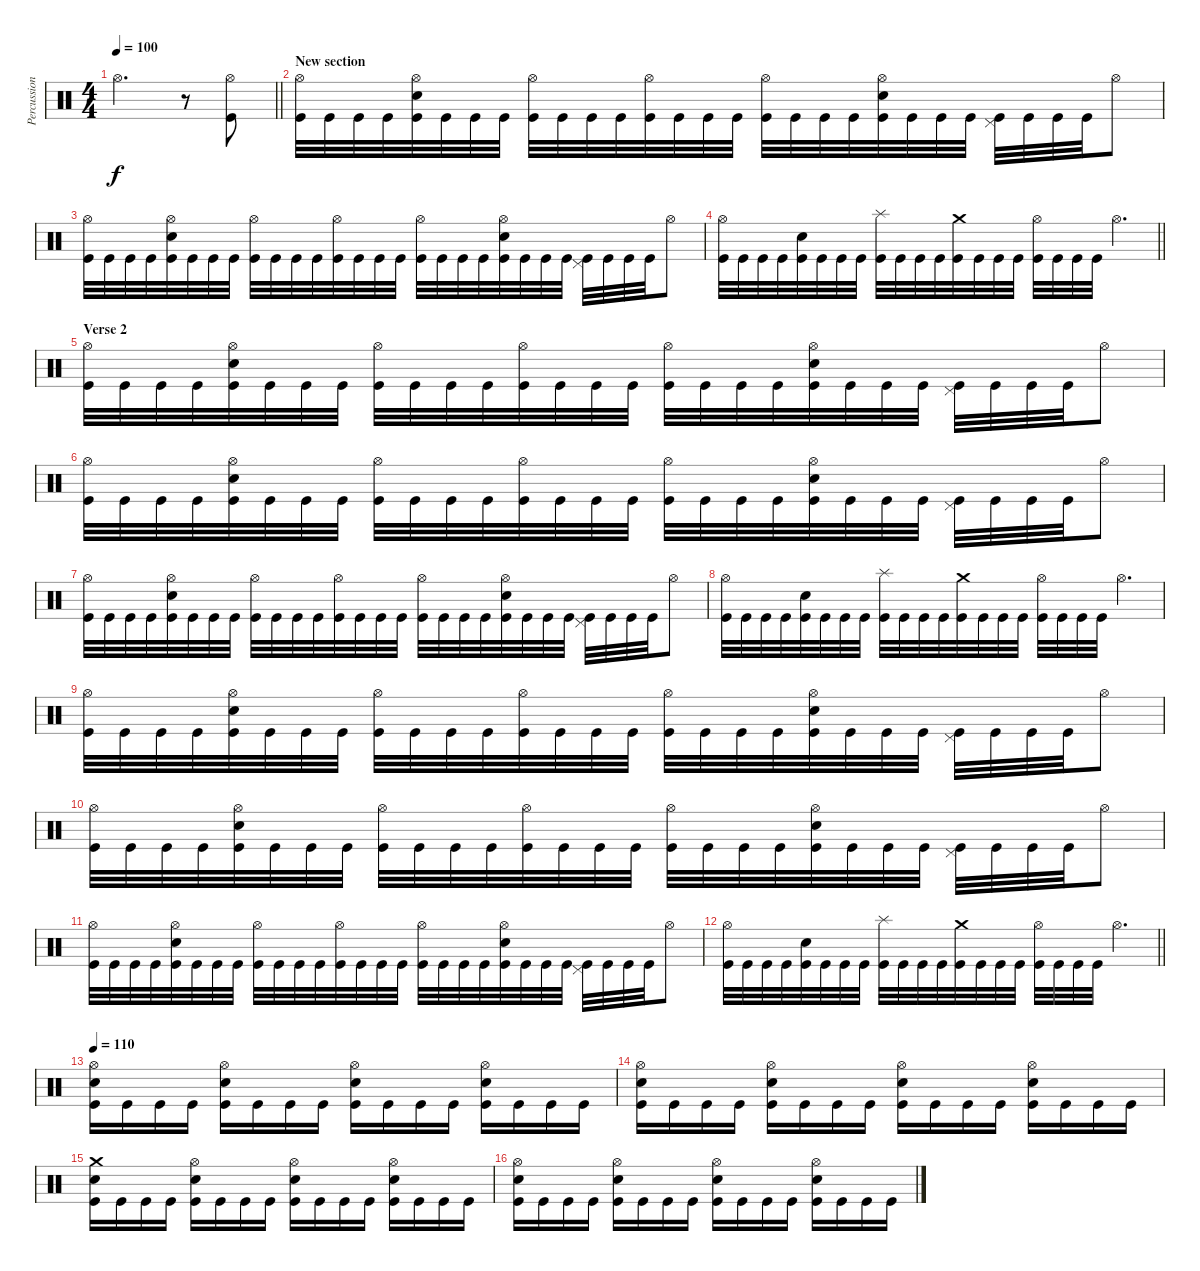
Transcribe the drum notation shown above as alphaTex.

\track ("Percussions" "Percussion") {instrument percussion}
\staff {score}
\articulation defaults
\ts (4 4)
\section ("" "")
\tempo 100
\clef neutral
\barLineRight lightlight
\ks c "Hi-Hat (open)".2{d dy f}
r.8 ("Hi-Hat (open)" "Kick (hit)").8 |
\section ("" "New section")
("Hi-Hat (open)" "Kick (hit)").32 "Kick (hit)".32 "Kick (hit)".32 "Kick (hit)".32 ("Hi-Hat (open)" "Electric Snare (hit)" "Kick (hit)").32 "Kick (hit)".32 "Kick (hit)".32 "Kick (hit)".32 ("Hi-Hat (open)" "Kick (hit)").32 "Kick (hit)".32 "Kick (hit)".32 "Kick (hit)".32 ("Hi-Hat (open)" "Kick (hit)").32 "Kick (hit)".32 "Kick (hit)".32 "Kick (hit)".32 ("Hi-Hat (open)" "Kick (hit)").32 "Kick (hit)".32 "Kick (hit)".32 "Kick (hit)".32 ("Hi-Hat (open)" "Electric Snare (hit)" "Kick (hit)").32 "Kick (hit)".32 "Kick (hit)".32 "Kick (hit)".32 ("Pedal Hi-Hat (hit)" "Kick (hit)").32 "Kick (hit)".32 "Kick (hit)".32 "Kick (hit)".32 "Hi-Hat (open)".8 |
("Hi-Hat (open)" "Kick (hit)").32 "Kick (hit)".32 "Kick (hit)".32 "Kick (hit)".32 ("Hi-Hat (open)" "Electric Snare (hit)" "Kick (hit)").32 "Kick (hit)".32 "Kick (hit)".32 "Kick (hit)".32 ("Hi-Hat (open)" "Kick (hit)").32 "Kick (hit)".32 "Kick (hit)".32 "Kick (hit)".32 ("Hi-Hat (open)" "Kick (hit)").32 "Kick (hit)".32 "Kick (hit)".32 "Kick (hit)".32 ("Hi-Hat (open)" "Kick (hit)").32 "Kick (hit)".32 "Kick (hit)".32 "Kick (hit)".32 ("Hi-Hat (open)" "Electric Snare (hit)" "Kick (hit)").32 "Kick (hit)".32 "Kick (hit)".32 "Kick (hit)".32 ("Pedal Hi-Hat (hit)" "Kick (hit)").32 "Kick (hit)".32 "Kick (hit)".32 "Kick (hit)".32 "Hi-Hat (open)".8 |
\barLineRight lightlight
("Hi-Hat (open)" "Kick (hit)").32 "Kick (hit)".32 "Kick (hit)".32 "Kick (hit)".32 ("Electric Snare (hit)" "Kick (hit)").32 "Kick (hit)".32 "Kick (hit)".32 "Kick (hit)".32 ("Splash (hit)" "Kick (hit)").32 "Kick (hit)".32 "Kick (hit)".32 "Kick (hit)".32 ("Crash medium (hit)" "Kick (hit)").32 "Kick (hit)".32 "Kick (hit)".32 "Kick (hit)".32 ("Hi-Hat (open)" "Kick (hit)").32 "Kick (hit)".32 "Kick (hit)".32 "Kick (hit)".32 "Hi-Hat (open)".4{d} |
\section ("" "Verse 2")
("Hi-Hat (open)" "Kick (hit)").32 "Kick (hit)".32 "Kick (hit)".32 "Kick (hit)".32 ("Hi-Hat (open)" "Electric Snare (hit)" "Kick (hit)").32 "Kick (hit)".32 "Kick (hit)".32 "Kick (hit)".32 ("Hi-Hat (open)" "Kick (hit)").32 "Kick (hit)".32 "Kick (hit)".32 "Kick (hit)".32 ("Hi-Hat (open)" "Kick (hit)").32 "Kick (hit)".32 "Kick (hit)".32 "Kick (hit)".32 ("Hi-Hat (open)" "Kick (hit)").32 "Kick (hit)".32 "Kick (hit)".32 "Kick (hit)".32 ("Hi-Hat (open)" "Electric Snare (hit)" "Kick (hit)").32 "Kick (hit)".32 "Kick (hit)".32 "Kick (hit)".32 ("Pedal Hi-Hat (hit)" "Kick (hit)").32 "Kick (hit)".32 "Kick (hit)".32 "Kick (hit)".32 "Hi-Hat (open)".8 |
("Hi-Hat (open)" "Kick (hit)").32 "Kick (hit)".32 "Kick (hit)".32 "Kick (hit)".32 ("Hi-Hat (open)" "Electric Snare (hit)" "Kick (hit)").32 "Kick (hit)".32 "Kick (hit)".32 "Kick (hit)".32 ("Hi-Hat (open)" "Kick (hit)").32 "Kick (hit)".32 "Kick (hit)".32 "Kick (hit)".32 ("Hi-Hat (open)" "Kick (hit)").32 "Kick (hit)".32 "Kick (hit)".32 "Kick (hit)".32 ("Hi-Hat (open)" "Kick (hit)").32 "Kick (hit)".32 "Kick (hit)".32 "Kick (hit)".32 ("Hi-Hat (open)" "Electric Snare (hit)" "Kick (hit)").32 "Kick (hit)".32 "Kick (hit)".32 "Kick (hit)".32 ("Pedal Hi-Hat (hit)" "Kick (hit)").32 "Kick (hit)".32 "Kick (hit)".32 "Kick (hit)".32 "Hi-Hat (open)".8 |
("Hi-Hat (open)" "Kick (hit)").32 "Kick (hit)".32 "Kick (hit)".32 "Kick (hit)".32 ("Hi-Hat (open)" "Electric Snare (hit)" "Kick (hit)").32 "Kick (hit)".32 "Kick (hit)".32 "Kick (hit)".32 ("Hi-Hat (open)" "Kick (hit)").32 "Kick (hit)".32 "Kick (hit)".32 "Kick (hit)".32 ("Hi-Hat (open)" "Kick (hit)").32 "Kick (hit)".32 "Kick (hit)".32 "Kick (hit)".32 ("Hi-Hat (open)" "Kick (hit)").32 "Kick (hit)".32 "Kick (hit)".32 "Kick (hit)".32 ("Hi-Hat (open)" "Electric Snare (hit)" "Kick (hit)").32 "Kick (hit)".32 "Kick (hit)".32 "Kick (hit)".32 ("Pedal Hi-Hat (hit)" "Kick (hit)").32 "Kick (hit)".32 "Kick (hit)".32 "Kick (hit)".32 "Hi-Hat (open)".8 |
("Hi-Hat (open)" "Kick (hit)").32 "Kick (hit)".32 "Kick (hit)".32 "Kick (hit)".32 ("Electric Snare (hit)" "Kick (hit)").32 "Kick (hit)".32 "Kick (hit)".32 "Kick (hit)".32 ("Splash (hit)" "Kick (hit)").32 "Kick (hit)".32 "Kick (hit)".32 "Kick (hit)".32 ("Crash medium (hit)" "Kick (hit)").32 "Kick (hit)".32 "Kick (hit)".32 "Kick (hit)".32 ("Hi-Hat (open)" "Kick (hit)").32 "Kick (hit)".32 "Kick (hit)".32 "Kick (hit)".32 "Hi-Hat (open)".4{d} |
("Hi-Hat (open)" "Kick (hit)").32 "Kick (hit)".32 "Kick (hit)".32 "Kick (hit)".32 ("Hi-Hat (open)" "Electric Snare (hit)" "Kick (hit)").32 "Kick (hit)".32 "Kick (hit)".32 "Kick (hit)".32 ("Hi-Hat (open)" "Kick (hit)").32 "Kick (hit)".32 "Kick (hit)".32 "Kick (hit)".32 ("Hi-Hat (open)" "Kick (hit)").32 "Kick (hit)".32 "Kick (hit)".32 "Kick (hit)".32 ("Hi-Hat (open)" "Kick (hit)").32 "Kick (hit)".32 "Kick (hit)".32 "Kick (hit)".32 ("Hi-Hat (open)" "Electric Snare (hit)" "Kick (hit)").32 "Kick (hit)".32 "Kick (hit)".32 "Kick (hit)".32 ("Pedal Hi-Hat (hit)" "Kick (hit)").32 "Kick (hit)".32 "Kick (hit)".32 "Kick (hit)".32 "Hi-Hat (open)".8 |
("Hi-Hat (open)" "Kick (hit)").32 "Kick (hit)".32 "Kick (hit)".32 "Kick (hit)".32 ("Hi-Hat (open)" "Electric Snare (hit)" "Kick (hit)").32 "Kick (hit)".32 "Kick (hit)".32 "Kick (hit)".32 ("Hi-Hat (open)" "Kick (hit)").32 "Kick (hit)".32 "Kick (hit)".32 "Kick (hit)".32 ("Hi-Hat (open)" "Kick (hit)").32 "Kick (hit)".32 "Kick (hit)".32 "Kick (hit)".32 ("Hi-Hat (open)" "Kick (hit)").32 "Kick (hit)".32 "Kick (hit)".32 "Kick (hit)".32 ("Hi-Hat (open)" "Electric Snare (hit)" "Kick (hit)").32 "Kick (hit)".32 "Kick (hit)".32 "Kick (hit)".32 ("Pedal Hi-Hat (hit)" "Kick (hit)").32 "Kick (hit)".32 "Kick (hit)".32 "Kick (hit)".32 "Hi-Hat (open)".8 |
("Hi-Hat (open)" "Kick (hit)").32 "Kick (hit)".32 "Kick (hit)".32 "Kick (hit)".32 ("Hi-Hat (open)" "Electric Snare (hit)" "Kick (hit)").32 "Kick (hit)".32 "Kick (hit)".32 "Kick (hit)".32 ("Hi-Hat (open)" "Kick (hit)").32 "Kick (hit)".32 "Kick (hit)".32 "Kick (hit)".32 ("Hi-Hat (open)" "Kick (hit)").32 "Kick (hit)".32 "Kick (hit)".32 "Kick (hit)".32 ("Hi-Hat (open)" "Kick (hit)").32 "Kick (hit)".32 "Kick (hit)".32 "Kick (hit)".32 ("Hi-Hat (open)" "Electric Snare (hit)" "Kick (hit)").32 "Kick (hit)".32 "Kick (hit)".32 "Kick (hit)".32 ("Pedal Hi-Hat (hit)" "Kick (hit)").32 "Kick (hit)".32 "Kick (hit)".32 "Kick (hit)".32 "Hi-Hat (open)".8 |
\barLineRight lightlight
("Hi-Hat (open)" "Kick (hit)").32 "Kick (hit)".32 "Kick (hit)".32 "Kick (hit)".32 ("Electric Snare (hit)" "Kick (hit)").32 "Kick (hit)".32 "Kick (hit)".32 "Kick (hit)".32 ("Splash (hit)" "Kick (hit)").32 "Kick (hit)".32 "Kick (hit)".32 "Kick (hit)".32 ("Crash medium (hit)" "Kick (hit)").32 "Kick (hit)".32 "Kick (hit)".32 "Kick (hit)".32 ("Hi-Hat (open)" "Kick (hit)").32 "Kick (hit)".32 "Kick (hit)".32 "Kick (hit)".32 "Hi-Hat (open)".4{d} |
\section ("" "")
\tempo 110
("Hi-Hat (open)" "Electric Snare (hit)" "Kick (hit)").16 "Kick (hit)".16 "Kick (hit)".16 "Kick (hit)".16 ("Hi-Hat (open)" "Electric Snare (hit)" "Kick (hit)").16 "Kick (hit)".16 "Kick (hit)".16 "Kick (hit)".16 ("Hi-Hat (open)" "Electric Snare (hit)" "Kick (hit)").16 "Kick (hit)".16 "Kick (hit)".16 "Kick (hit)".16 ("Hi-Hat (open)" "Electric Snare (hit)" "Kick (hit)").16 "Kick (hit)".16 "Kick (hit)".16 "Kick (hit)".16 |
("Hi-Hat (open)" "Electric Snare (hit)" "Kick (hit)").16 "Kick (hit)".16 "Kick (hit)".16 "Kick (hit)".16 ("Hi-Hat (open)" "Electric Snare (hit)" "Kick (hit)").16 "Kick (hit)".16 "Kick (hit)".16 "Kick (hit)".16 ("Hi-Hat (open)" "Electric Snare (hit)" "Kick (hit)").16 "Kick (hit)".16 "Kick (hit)".16 "Kick (hit)".16 ("Hi-Hat (open)" "Electric Snare (hit)" "Kick (hit)").16 "Kick (hit)".16 "Kick (hit)".16 "Kick (hit)".16 |
("Crash medium (hit)" "Electric Snare (hit)" "Kick (hit)").16 "Kick (hit)".16 "Kick (hit)".16 "Kick (hit)".16 ("Hi-Hat (open)" "Electric Snare (hit)" "Kick (hit)").16 "Kick (hit)".16 "Kick (hit)".16 "Kick (hit)".16 ("Hi-Hat (open)" "Electric Snare (hit)" "Kick (hit)").16 "Kick (hit)".16 "Kick (hit)".16 "Kick (hit)".16 ("Hi-Hat (open)" "Electric Snare (hit)" "Kick (hit)").16 "Kick (hit)".16 "Kick (hit)".16 "Kick (hit)".16 |
("Hi-Hat (open)" "Electric Snare (hit)" "Kick (hit)").16 "Kick (hit)".16 "Kick (hit)".16 "Kick (hit)".16 ("Hi-Hat (open)" "Electric Snare (hit)" "Kick (hit)").16 "Kick (hit)".16 "Kick (hit)".16 "Kick (hit)".16 ("Hi-Hat (open)" "Electric Snare (hit)" "Kick (hit)").16 "Kick (hit)".16 "Kick (hit)".16 "Kick (hit)".16 ("Hi-Hat (open)" "Electric Snare (hit)" "Kick (hit)").16 "Kick (hit)".16 "Kick (hit)".16 "Kick (hit)".16
